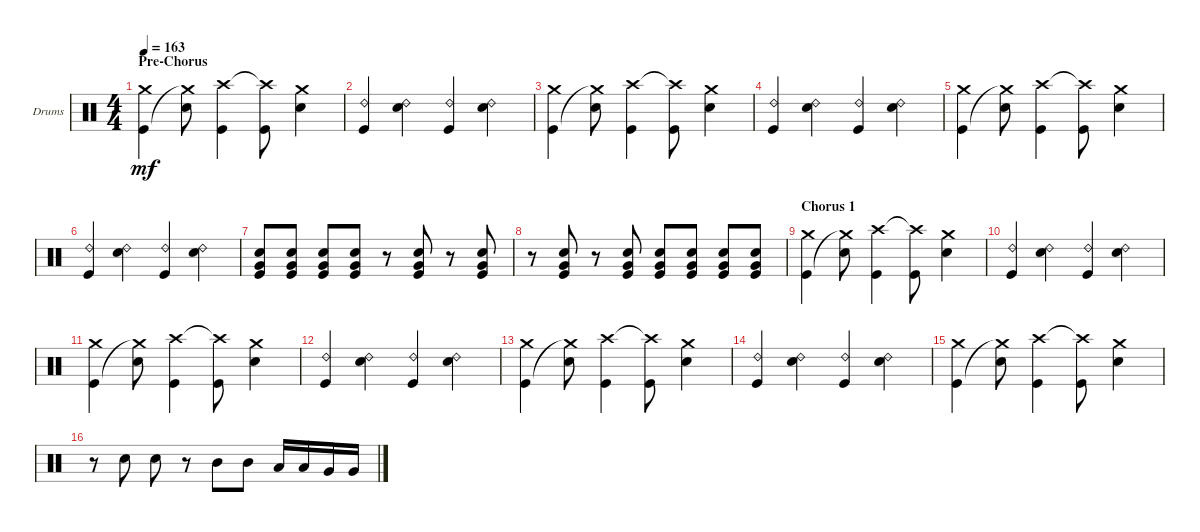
\bracketExtendMode groupsimilarinstruments
\firstSystemTrackNameOrientation horizontal
\otherSystemsTrackNameOrientation horizontal
\track ("Drums" "Drums") {instrument percussion}
\staff {score}
\articulation defaults
\ts (4 4)
\section ("" "Pre-Chorus")
\tempo 163
\clef neutral
\scale
0.333333
\ks c
("Crash medium (hit)" "Kick (hit)").4{dy mf} ("Snare (hit) 2" "Crash medium (hit)"{t}).8 ("Kick (hit)" "Crash high (hit)").4 ("Kick (hit)" "Crash high (hit)"{t}).8 ("Snare (hit) 2" "Crash medium (hit)").4 |
\scale
0.333333 ("Ride (bell) 2" "Kick (hit)").4 ("Ride (bell) 2" "Snare (hit) 2").4 ("Ride (bell) 2" "Kick (hit)").4 ("Ride (bell) 2" "Snare (hit) 2").4 |
\scale
0.333333 ("Crash medium (hit)" "Kick (hit)").4 ("Snare (hit) 2" "Crash medium (hit)"{t}).8 ("Kick (hit)" "Crash high (hit)").4 ("Kick (hit)" "Crash high (hit)"{t}).8 ("Snare (hit) 2" "Crash medium (hit)").4 |
\scale
0.333333 ("Ride (bell) 2" "Kick (hit)").4 ("Ride (bell) 2" "Snare (hit) 2").4 ("Ride (bell) 2" "Kick (hit)").4 ("Ride (bell) 2" "Snare (hit) 2").4 |
\scale
0.333333 ("Crash medium (hit)" "Kick (hit)").4 ("Snare (hit) 2" "Crash medium (hit)"{t}).8 ("Kick (hit)" "Crash high (hit)").4 ("Kick (hit)" "Crash high (hit)"{t}).8 ("Snare (hit) 2" "Crash medium (hit)").4 |
\scale
0.333333 ("Ride (bell) 2" "Kick (hit)").4 ("Ride (bell) 2" "Snare (hit) 2").4 ("Ride (bell) 2" "Kick (hit)").4 ("Ride (bell) 2" "Snare (hit) 2").4 |
\scale
0.333333 ("Kick (hit)" "Snare (hit) 2" "Very Low Tom (hit)").8 ("Kick (hit)" "Snare (hit) 2" "Very Low Tom (hit)").8 ("Kick (hit)" "Snare (hit) 2" "Very Low Tom (hit)").8 ("Kick (hit)" "Snare (hit) 2" "Very Low Tom (hit)").8 r.8 ("Kick (hit)" "Snare (hit) 2" "Very Low Tom (hit)").8 r.8 ("Kick (hit)" "Snare (hit) 2" "Very Low Tom (hit)").8 |
\scale
0.333333 r.8 ("Kick (hit)" "Snare (hit) 2" "Very Low Tom (hit)").8 r.8 ("Kick (hit)" "Snare (hit) 2" "Very Low Tom (hit)").8 ("Kick (hit)" "Snare (hit) 2" "Very Low Tom (hit)").8 ("Kick (hit)" "Snare (hit) 2" "Very Low Tom (hit)").8 ("Kick (hit)" "Snare (hit) 2" "Very Low Tom (hit)").8 ("Kick (hit)" "Snare (hit) 2" "Very Low Tom (hit)").8 |
\section ("" "Chorus 1")
\scale
0.333333 ("Crash medium (hit)" "Kick (hit)").4 ("Snare (hit) 2" "Crash medium (hit)"{t}).8 ("Kick (hit)" "Crash high (hit)").4 ("Kick (hit)" "Crash high (hit)"{t}).8 ("Snare (hit) 2" "Crash medium (hit)").4 |
\scale
0.333333 ("Ride (bell) 2" "Kick (hit)").4 ("Ride (bell) 2" "Snare (hit) 2").4 ("Ride (bell) 2" "Kick (hit)").4 ("Ride (bell) 2" "Snare (hit) 2").4 |
\scale
0.333333 ("Crash medium (hit)" "Kick (hit)").4 ("Snare (hit) 2" "Crash medium (hit)"{t}).8 ("Kick (hit)" "Crash high (hit)").4 ("Kick (hit)" "Crash high (hit)"{t}).8 ("Snare (hit) 2" "Crash medium (hit)").4 |
\scale
0.333333 ("Ride (bell) 2" "Kick (hit)").4 ("Ride (bell) 2" "Snare (hit) 2").4 ("Ride (bell) 2" "Kick (hit)").4 ("Ride (bell) 2" "Snare (hit) 2").4 |
\scale
0.333333 ("Crash medium (hit)" "Kick (hit)").4 ("Snare (hit) 2" "Crash medium (hit)"{t}).8 ("Kick (hit)" "Crash high (hit)").4 ("Kick (hit)" "Crash high (hit)"{t}).8 ("Snare (hit) 2" "Crash medium (hit)").4 |
\scale
0.333333 ("Ride (bell) 2" "Kick (hit)").4 ("Ride (bell) 2" "Snare (hit) 2").4 ("Ride (bell) 2" "Kick (hit)").4 ("Ride (bell) 2" "Snare (hit) 2").4 |
\scale
0.333333 ("Crash medium (hit)" "Kick (hit)").4 ("Snare (hit) 2" "Crash medium (hit)"{t}).8 ("Kick (hit)" "Crash high (hit)").4 ("Kick (hit)" "Crash high (hit)"{t}).8 ("Snare (hit) 2" "Crash medium (hit)").4 |
\scale
0.333333 r.8 "Snare (hit) 2".8 "Snare (hit) 2".8 r.8 "Mid Tom (hit)".8 "Mid Tom (hit)".8 "Low Tom (hit)".16 "Low Tom (hit)".16 "Very Low Tom (hit)".16 "Very Low Tom (hit)".16
